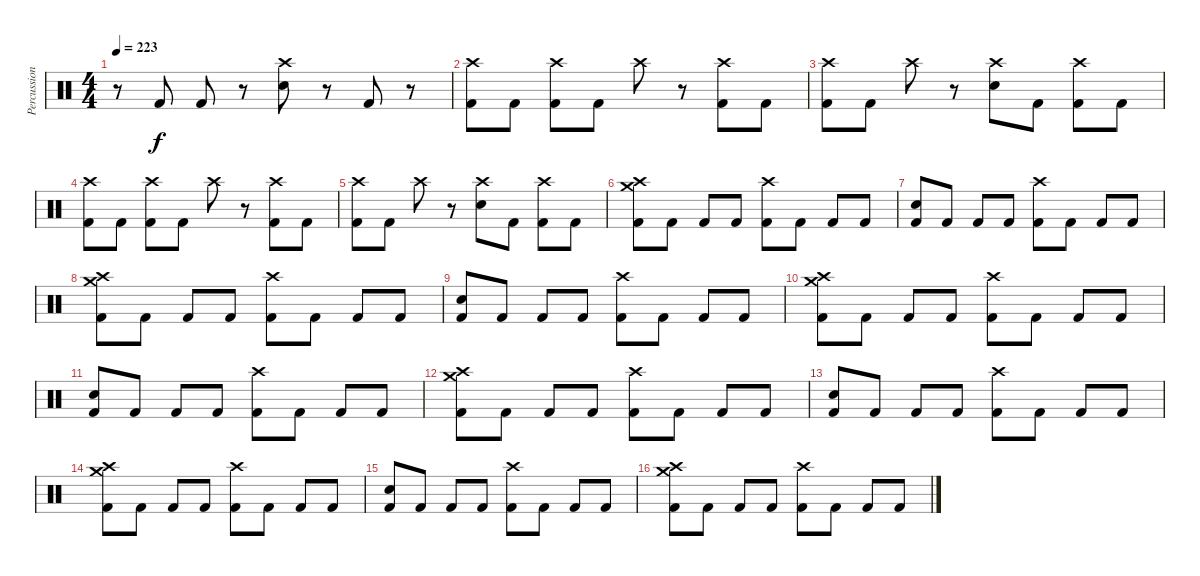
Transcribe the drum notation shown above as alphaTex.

\track ("Percussion" "Percussion") {instrument percussion}
\staff {score}
\articulation defaults
\ts (4 4)
\tempo 223
\clef neutral
\ks c
r.8{dy f} "Kick (hit) 2".8 "Kick (hit) 2".8 r.8 ("Crash high (hit)" "Electric Snare (hit)").8 r.8 "Kick (hit) 2".8 r.8 |
("Crash high (hit)" "Kick (hit) 2").8 "Kick (hit) 2".8 ("Crash high (hit)" "Kick (hit) 2").8 "Kick (hit) 2".8 "Crash high (hit)".8 r.8 ("Crash high (hit)" "Kick (hit) 2").8 "Kick (hit) 2".8 |
("Crash high (hit)" "Kick (hit) 2").8 "Kick (hit) 2".8 "Crash high (hit)".8 r.8 ("Crash high (hit)" "Electric Snare (hit)").8 "Kick (hit) 2".8 ("Crash high (hit)" "Kick (hit) 2").8 "Kick (hit) 2".8 |
("Crash high (hit)" "Kick (hit) 2").8 "Kick (hit) 2".8 ("Crash high (hit)" "Kick (hit) 2").8 "Kick (hit) 2".8 "Crash high (hit)".8 r.8 ("Crash high (hit)" "Kick (hit) 2").8 "Kick (hit) 2".8 |
("Crash high (hit)" "Kick (hit) 2").8 "Kick (hit) 2".8 "Crash high (hit)".8 r.8 ("Crash high (hit)" "Electric Snare (hit)").8 "Kick (hit) 2".8 ("Crash high (hit)" "Kick (hit) 2").8 "Kick (hit) 2".8 |
("Crash high (hit)" "Crash medium (hit)" "Kick (hit) 2").8 "Kick (hit) 2".8 "Kick (hit) 2".8 "Kick (hit) 2".8 ("Crash high (hit)" "Kick (hit) 2").8 "Kick (hit) 2".8 "Kick (hit) 2".8 "Kick (hit) 2".8 |
("Electric Snare (hit)" "Kick (hit) 2").8 "Kick (hit) 2".8 "Kick (hit) 2".8 "Kick (hit) 2".8 ("Crash high (hit)" "Kick (hit) 2").8 "Kick (hit) 2".8 "Kick (hit) 2".8 "Kick (hit) 2".8 |
("Crash high (hit)" "Crash medium (hit)" "Kick (hit) 2").8 "Kick (hit) 2".8 "Kick (hit) 2".8 "Kick (hit) 2".8 ("Crash high (hit)" "Kick (hit) 2").8 "Kick (hit) 2".8 "Kick (hit) 2".8 "Kick (hit) 2".8 |
("Electric Snare (hit)" "Kick (hit) 2").8 "Kick (hit) 2".8 "Kick (hit) 2".8 "Kick (hit) 2".8 ("Crash high (hit)" "Kick (hit) 2").8 "Kick (hit) 2".8 "Kick (hit) 2".8 "Kick (hit) 2".8 |
("Crash high (hit)" "Crash medium (hit)" "Kick (hit) 2").8 "Kick (hit) 2".8 "Kick (hit) 2".8 "Kick (hit) 2".8 ("Crash high (hit)" "Kick (hit) 2").8 "Kick (hit) 2".8 "Kick (hit) 2".8 "Kick (hit) 2".8 |
("Electric Snare (hit)" "Kick (hit) 2").8 "Kick (hit) 2".8 "Kick (hit) 2".8 "Kick (hit) 2".8 ("Crash high (hit)" "Kick (hit) 2").8 "Kick (hit) 2".8 "Kick (hit) 2".8 "Kick (hit) 2".8 |
("Crash high (hit)" "Crash medium (hit)" "Kick (hit) 2").8 "Kick (hit) 2".8 "Kick (hit) 2".8 "Kick (hit) 2".8 ("Crash high (hit)" "Kick (hit) 2").8 "Kick (hit) 2".8 "Kick (hit) 2".8 "Kick (hit) 2".8 |
("Electric Snare (hit)" "Kick (hit) 2").8 "Kick (hit) 2".8 "Kick (hit) 2".8 "Kick (hit) 2".8 ("Crash high (hit)" "Kick (hit) 2").8 "Kick (hit) 2".8 "Kick (hit) 2".8 "Kick (hit) 2".8 |
("Crash high (hit)" "Crash medium (hit)" "Kick (hit) 2").8 "Kick (hit) 2".8 "Kick (hit) 2".8 "Kick (hit) 2".8 ("Crash high (hit)" "Kick (hit) 2").8 "Kick (hit) 2".8 "Kick (hit) 2".8 "Kick (hit) 2".8 |
("Electric Snare (hit)" "Kick (hit) 2").8 "Kick (hit) 2".8 "Kick (hit) 2".8 "Kick (hit) 2".8 ("Crash high (hit)" "Kick (hit) 2").8 "Kick (hit) 2".8 "Kick (hit) 2".8 "Kick (hit) 2".8 |
("Crash high (hit)" "Crash medium (hit)" "Kick (hit) 2").8 "Kick (hit) 2".8 "Kick (hit) 2".8 "Kick (hit) 2".8 ("Crash high (hit)" "Kick (hit) 2").8 "Kick (hit) 2".8 "Kick (hit) 2".8 "Kick (hit) 2".8
